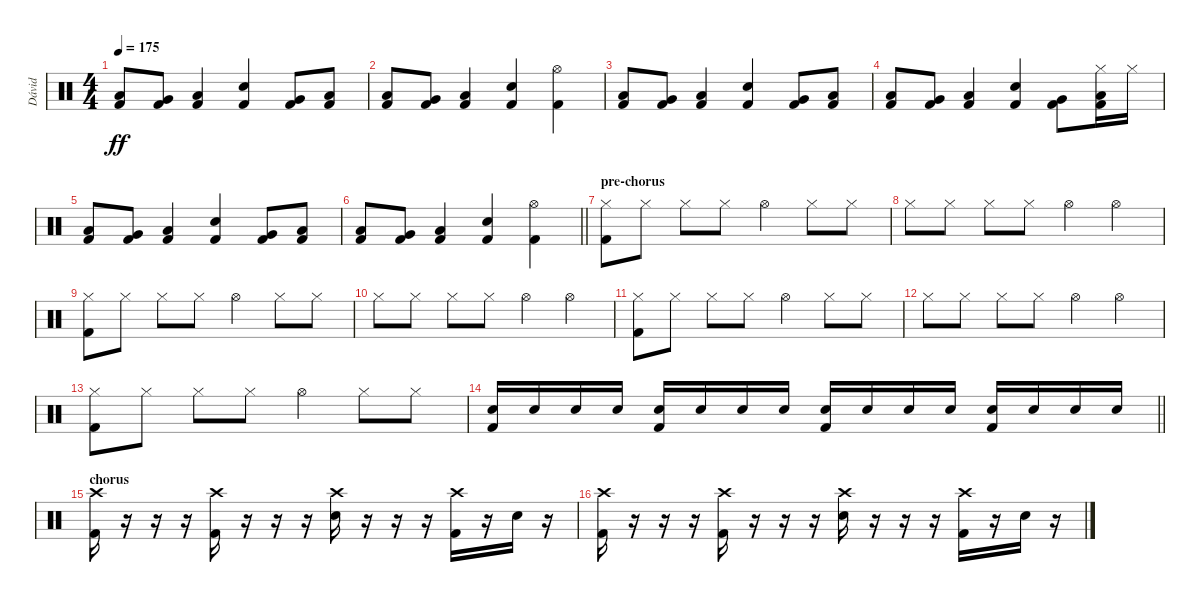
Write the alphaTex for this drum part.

\track ("Dávid" "Dávid") {instrument percussion}
\staff {score}
\articulation defaults
\ts (4 4)
\tempo 175
\clef neutral
\ks c
("Low Tom (hit)" "Kick (hit) 2").8{dy ff} ("Very Low Tom (hit)" "Kick (hit) 2").8 ("Low Floor Tom (hit)" "Kick (hit) 2").4 ("Electric Snare (hit)" "Kick (hit) 2").4 ("Very Low Tom (hit)" "Kick (hit) 2").8 ("Low Floor Tom (hit)" "Kick (hit) 2").8 |
("Low Tom (hit)" "Kick (hit) 2").8 ("Very Low Tom (hit)" "Kick (hit) 2").8 ("Low Floor Tom (hit)" "Kick (hit) 2").4 ("Electric Snare (hit)" "Kick (hit) 2").4 ("Hi-Hat (open)" "Kick (hit) 2").4 |
("Low Tom (hit)" "Kick (hit) 2").8 ("Very Low Tom (hit)" "Kick (hit) 2").8 ("Low Floor Tom (hit)" "Kick (hit) 2").4 ("Electric Snare (hit)" "Kick (hit) 2").4 ("Very Low Tom (hit)" "Kick (hit) 2").8 ("Low Floor Tom (hit)" "Kick (hit) 2").8 |
("Low Tom (hit)" "Kick (hit) 2").8 ("Very Low Tom (hit)" "Kick (hit) 2").8 ("Low Floor Tom (hit)" "Kick (hit) 2").4 ("Electric Snare (hit)" "Kick (hit) 2").4 ("Very Low Tom (hit)" "Kick (hit) 2").8 ("Low Floor Tom (hit)" "Hi-Hat (closed)" "Kick (hit) 2").16 "Hi-Hat (closed)".16 |
("Low Tom (hit)" "Kick (hit) 2").8 ("Very Low Tom (hit)" "Kick (hit) 2").8 ("Low Floor Tom (hit)" "Kick (hit) 2").4 ("Electric Snare (hit)" "Kick (hit) 2").4 ("Very Low Tom (hit)" "Kick (hit) 2").8 ("Low Floor Tom (hit)" "Kick (hit) 2").8 |
\barLineRight lightlight
("Low Tom (hit)" "Kick (hit) 2").8 ("Very Low Tom (hit)" "Kick (hit) 2").8 ("Low Floor Tom (hit)" "Kick (hit) 2").4 ("Electric Snare (hit)" "Kick (hit) 2").4 ("Hi-Hat (open)" "Kick (hit) 2").4 |
\section ("" "pre-chorus")
("Hi-Hat (closed)" "Kick (hit) 2").8 "Hi-Hat (closed)".8 "Hi-Hat (closed)".8 "Hi-Hat (closed)".8 "Hi-Hat (open)".4 "Hi-Hat (closed)".8 "Hi-Hat (closed)".8 |
"Hi-Hat (closed)".8 "Hi-Hat (closed)".8 "Hi-Hat (closed)".8 "Hi-Hat (closed)".8 "Hi-Hat (open)".4 "Hi-Hat (open)".4 |
("Hi-Hat (closed)" "Kick (hit) 2").8 "Hi-Hat (closed)".8 "Hi-Hat (closed)".8 "Hi-Hat (closed)".8 "Hi-Hat (open)".4 "Hi-Hat (closed)".8 "Hi-Hat (closed)".8 |
"Hi-Hat (closed)".8 "Hi-Hat (closed)".8 "Hi-Hat (closed)".8 "Hi-Hat (closed)".8 "Hi-Hat (open)".4 "Hi-Hat (open)".4 |
("Hi-Hat (closed)" "Kick (hit) 2").8 "Hi-Hat (closed)".8 "Hi-Hat (closed)".8 "Hi-Hat (closed)".8 "Hi-Hat (open)".4 "Hi-Hat (closed)".8 "Hi-Hat (closed)".8 |
"Hi-Hat (closed)".8 "Hi-Hat (closed)".8 "Hi-Hat (closed)".8 "Hi-Hat (closed)".8 "Hi-Hat (open)".4 "Hi-Hat (open)".4 |
("Hi-Hat (closed)" "Kick (hit) 2").8 "Hi-Hat (closed)".8 "Hi-Hat (closed)".8 "Hi-Hat (closed)".8 "Hi-Hat (open)".4 "Hi-Hat (closed)".8 "Hi-Hat (closed)".8 |
\barLineRight lightlight
("Electric Snare (hit)" "Kick (hit) 2").16 "Electric Snare (hit)".16 "Electric Snare (hit)".16 "Electric Snare (hit)".16 ("Electric Snare (hit)" "Kick (hit) 2").16 "Electric Snare (hit)".16 "Electric Snare (hit)".16 "Electric Snare (hit)".16 ("Electric Snare (hit)" "Kick (hit) 2").16 "Electric Snare (hit)".16 "Electric Snare (hit)".16 "Electric Snare (hit)".16 ("Electric Snare (hit)" "Kick (hit) 2").16 "Electric Snare (hit)".16 "Electric Snare (hit)".16 "Electric Snare (hit)".16 |
\section ("" "chorus")
("Crash high (hit)" "Kick (hit) 2").16 r.16 r.16 r.16 ("Crash high (hit)" "Kick (hit) 2").16 r.16 r.16 r.16 ("Crash high (hit)" "Electric Snare (hit)").16 r.16 r.16 r.16 ("Crash high (hit)" "Kick (hit) 2").16 r.16 "Electric Snare (hit)".16 r.16 |
("Crash high (hit)" "Kick (hit) 2").16 r.16 r.16 r.16 ("Crash high (hit)" "Kick (hit) 2").16 r.16 r.16 r.16 ("Crash high (hit)" "Electric Snare (hit)").16 r.16 r.16 r.16 ("Crash high (hit)" "Kick (hit) 2").16 r.16 "Electric Snare (hit)".16 r.16
